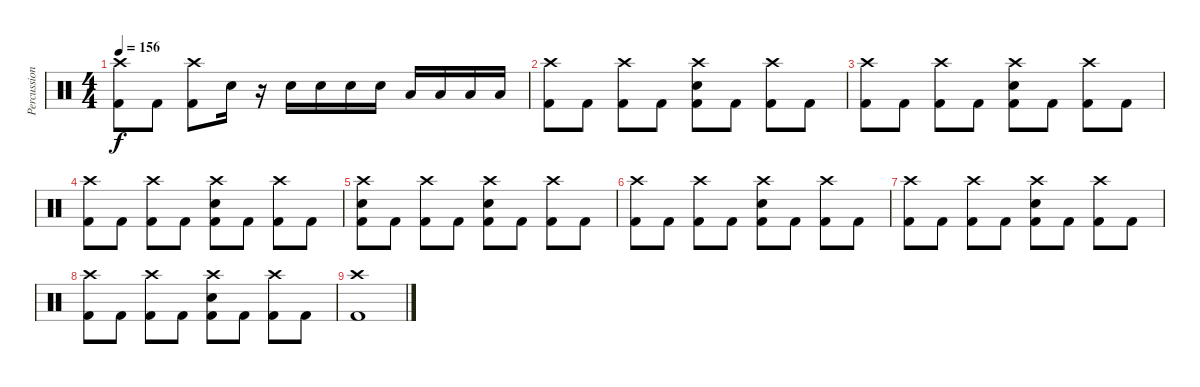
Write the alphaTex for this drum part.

\track ("Percussions" "Percussion") {instrument percussion}
\staff {score}
\articulation defaults
\ts (4 4)
\tempo 156
\clef neutral
\ks c
("Crash high (hit)" "Kick (hit) 2").8{dy f} "Kick (hit) 2".8 ("Crash high (hit)" "Kick (hit) 2").8 "Electric Snare (hit)".16 r.16 "Electric Snare (hit)".16 "Electric Snare (hit)".16 "Electric Snare (hit)".16 "Electric Snare (hit)".16 "Low Tom (hit)".16 "Low Tom (hit)".16 "Low Tom (hit)".16 "Low Tom (hit)".16 |
("Crash high (hit)" "Kick (hit) 2").8 "Kick (hit) 2".8 ("Crash high (hit)" "Kick (hit) 2").8 "Kick (hit) 2".8 ("Crash high (hit)" "Electric Snare (hit)" "Kick (hit) 2").8 "Kick (hit) 2".8 ("Crash high (hit)" "Kick (hit) 2").8 "Kick (hit) 2".8 |
("Crash high (hit)" "Kick (hit) 2").8 "Kick (hit) 2".8 ("Crash high (hit)" "Kick (hit) 2").8 "Kick (hit) 2".8 ("Crash high (hit)" "Electric Snare (hit)" "Kick (hit) 2").8 "Kick (hit) 2".8 ("Crash high (hit)" "Kick (hit) 2").8 "Kick (hit) 2".8 |
("Crash high (hit)" "Kick (hit) 2").8 "Kick (hit) 2".8 ("Crash high (hit)" "Kick (hit) 2").8 "Kick (hit) 2".8 ("Crash high (hit)" "Electric Snare (hit)" "Kick (hit) 2").8 "Kick (hit) 2".8 ("Crash high (hit)" "Kick (hit) 2").8 "Kick (hit) 2".8 |
("Crash high (hit)" "Electric Snare (hit)" "Kick (hit) 2").8 "Kick (hit) 2".8 ("Crash high (hit)" "Kick (hit) 2").8 "Kick (hit) 2".8 ("Crash high (hit)" "Electric Snare (hit)" "Kick (hit) 2").8 "Kick (hit) 2".8 ("Crash high (hit)" "Kick (hit) 2").8 "Kick (hit) 2".8 |
("Crash high (hit)" "Kick (hit) 2").8 "Kick (hit) 2".8 ("Crash high (hit)" "Kick (hit) 2").8 "Kick (hit) 2".8 ("Crash high (hit)" "Electric Snare (hit)" "Kick (hit) 2").8 "Kick (hit) 2".8 ("Crash high (hit)" "Kick (hit) 2").8 "Kick (hit) 2".8 |
("Crash high (hit)" "Kick (hit) 2").8 "Kick (hit) 2".8 ("Crash high (hit)" "Kick (hit) 2").8 "Kick (hit) 2".8 ("Crash high (hit)" "Electric Snare (hit)" "Kick (hit) 2").8 "Kick (hit) 2".8 ("Crash high (hit)" "Kick (hit) 2").8 "Kick (hit) 2".8 |
("Crash high (hit)" "Kick (hit) 2").8 "Kick (hit) 2".8 ("Crash high (hit)" "Kick (hit) 2").8 "Kick (hit) 2".8 ("Crash high (hit)" "Electric Snare (hit)" "Kick (hit) 2").8 "Kick (hit) 2".8 ("Crash high (hit)" "Kick (hit) 2").8 "Kick (hit) 2".8 |
("Crash high (hit)" "Kick (hit) 2").1
